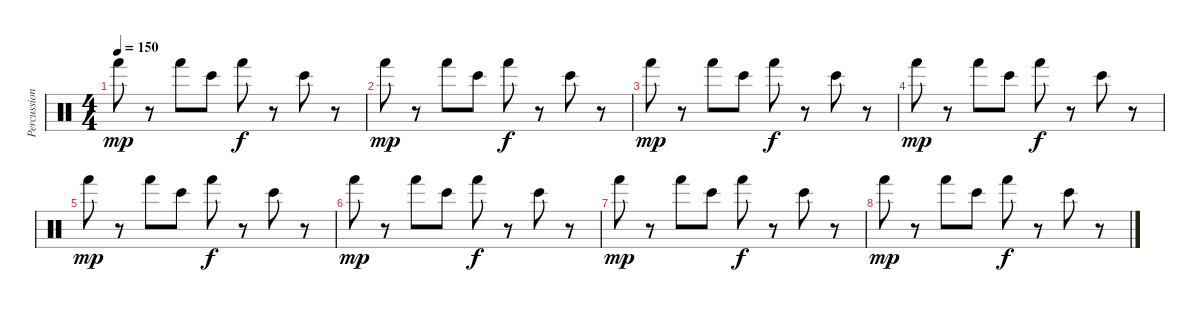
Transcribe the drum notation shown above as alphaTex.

\track ("Percussion" "Percussion") {instrument percussion}
\staff {score}
\articulation defaults
\ts (4 4)
\tempo 150
\clef neutral
\ks c "Hand (hit)".8{dy mp}
r.8 "Hand (hit)".8 "Bongo High (hit)".8 "Hand (hit)".8{dy f} r.8 "Bongo High (hit)".8 r.8 |
"Hand (hit)".8{dy mp} r.8 "Hand (hit)".8 "Bongo High (hit)".8 "Hand (hit)".8{dy f} r.8 "Bongo High (hit)".8 r.8 |
"Hand (hit)".8{dy mp} r.8 "Hand (hit)".8 "Bongo High (hit)".8 "Hand (hit)".8{dy f} r.8 "Bongo High (hit)".8 r.8 |
"Hand (hit)".8{dy mp} r.8 "Hand (hit)".8 "Bongo High (hit)".8 "Hand (hit)".8{dy f} r.8 "Bongo High (hit)".8 r.8 |
"Hand (hit)".8{dy mp} r.8 "Hand (hit)".8 "Bongo High (hit)".8 "Hand (hit)".8{dy f} r.8 "Bongo High (hit)".8 r.8 |
"Hand (hit)".8{dy mp} r.8 "Hand (hit)".8 "Bongo High (hit)".8 "Hand (hit)".8{dy f} r.8 "Bongo High (hit)".8 r.8 |
"Hand (hit)".8{dy mp} r.8 "Hand (hit)".8 "Bongo High (hit)".8 "Hand (hit)".8{dy f} r.8 "Bongo High (hit)".8 r.8 |
"Hand (hit)".8{dy mp} r.8 "Hand (hit)".8 "Bongo High (hit)".8 "Hand (hit)".8{dy f} r.8 "Bongo High (hit)".8 r.8
